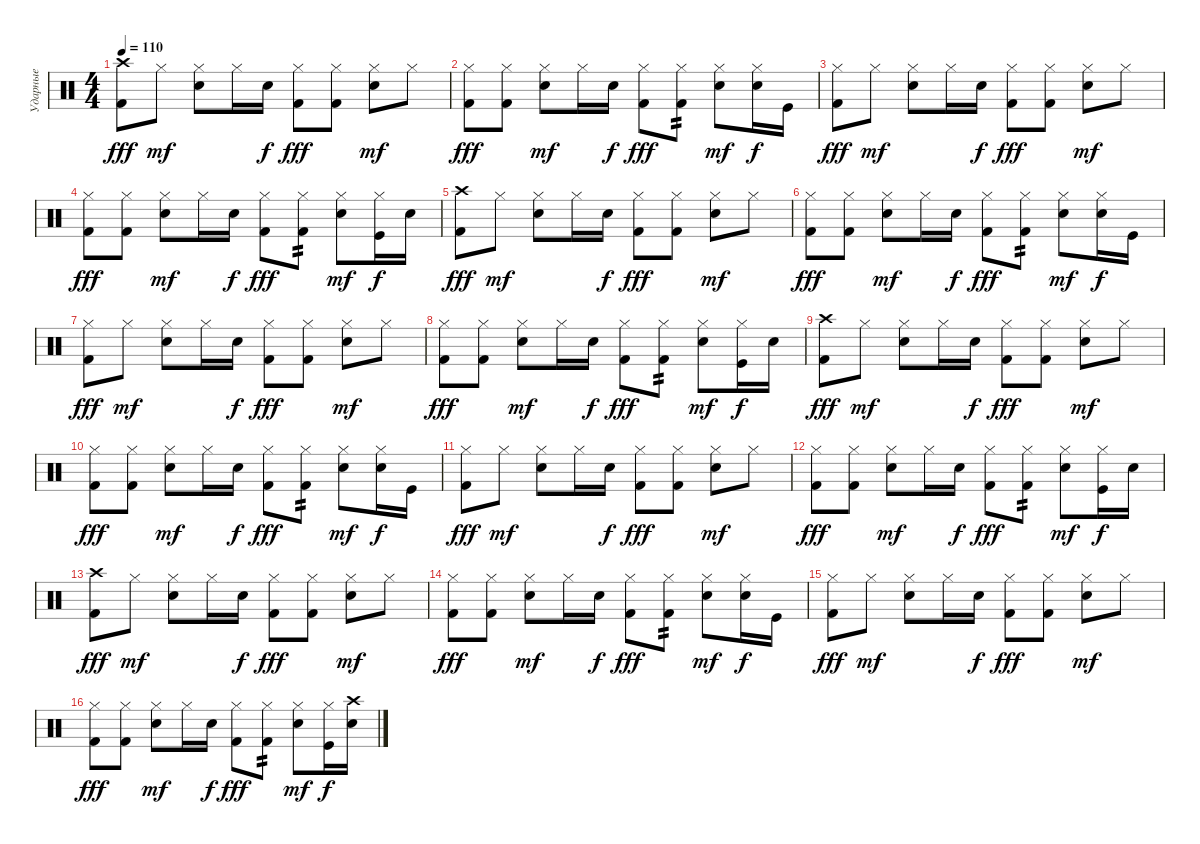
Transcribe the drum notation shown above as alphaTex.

\track ("Ударные" "Ударные") {instrument percussion}
\staff {score}
\articulation defaults
\ts (4 4)
\tempo 110
\clef neutral
\ks c
("Crash high (hit)" "Kick (hit) 2").8{dy fff} "Hi-Hat (closed)".8{dy mf} ("Hi-Hat (closed)" "Snare (hit) 2").8 "Hi-Hat (closed)".16 "Snare (hit) 2".16{dy f} ("Hi-Hat (closed)" "Kick (hit) 2").8{dy fff} ("Hi-Hat (closed)" "Kick (hit) 2").8 ("Hi-Hat (closed)" "Snare (hit) 2").8{dy mf} "Hi-Hat (closed)".8 |
("Hi-Hat (closed)" "Kick (hit) 2").8{dy fff} ("Hi-Hat (closed)" "Kick (hit) 2").8 ("Hi-Hat (closed)" "Snare (hit) 2").8{dy mf} "Hi-Hat (closed)".16 "Snare (hit) 2".16{dy f} ("Hi-Hat (closed)" "Kick (hit) 2").8{dy fff} ("Hi-Hat (closed)" "Kick (hit) 2").8{tp 2} ("Hi-Hat (closed)" "Snare (hit) 2").8{dy mf} ("Snare (hit) 2" "Hi-Hat (closed)").16{dy f} "Kick (hit)".16 |
("Hi-Hat (closed)" "Kick (hit) 2").8{dy fff} "Hi-Hat (closed)".8{dy mf} ("Hi-Hat (closed)" "Snare (hit) 2").8 "Hi-Hat (closed)".16 "Snare (hit) 2".16{dy f} ("Hi-Hat (closed)" "Kick (hit) 2").8{dy fff} ("Hi-Hat (closed)" "Kick (hit) 2").8 ("Hi-Hat (closed)" "Snare (hit) 2").8{dy mf} "Hi-Hat (closed)".8 |
("Hi-Hat (closed)" "Kick (hit) 2").8{dy fff} ("Hi-Hat (closed)" "Kick (hit) 2").8 ("Hi-Hat (closed)" "Snare (hit) 2").8{dy mf} "Hi-Hat (closed)".16 "Snare (hit) 2".16{dy f} ("Hi-Hat (closed)" "Kick (hit) 2").8{dy fff} ("Hi-Hat (closed)" "Kick (hit) 2").8{tp 2} ("Hi-Hat (closed)" "Snare (hit) 2").8{dy mf} ("Kick (hit)" "Hi-Hat (closed)").16{dy f} "Snare (hit) 2".16 |
("Crash high (hit)" "Kick (hit) 2").8{dy fff} "Hi-Hat (closed)".8{dy mf} ("Hi-Hat (closed)" "Snare (hit) 2").8 "Hi-Hat (closed)".16 "Snare (hit) 2".16{dy f} ("Hi-Hat (closed)" "Kick (hit) 2").8{dy fff} ("Hi-Hat (closed)" "Kick (hit) 2").8 ("Hi-Hat (closed)" "Snare (hit) 2").8{dy mf} "Hi-Hat (closed)".8 |
("Hi-Hat (closed)" "Kick (hit) 2").8{dy fff} ("Hi-Hat (closed)" "Kick (hit) 2").8 ("Hi-Hat (closed)" "Snare (hit) 2").8{dy mf} "Hi-Hat (closed)".16 "Snare (hit) 2".16{dy f} ("Hi-Hat (closed)" "Kick (hit) 2").8{dy fff} ("Hi-Hat (closed)" "Kick (hit) 2").8{tp 2} ("Hi-Hat (closed)" "Snare (hit) 2").8{dy mf} ("Snare (hit) 2" "Hi-Hat (closed)").16{dy f} "Kick (hit)".16 |
("Hi-Hat (closed)" "Kick (hit) 2").8{dy fff} "Hi-Hat (closed)".8{dy mf} ("Hi-Hat (closed)" "Snare (hit) 2").8 "Hi-Hat (closed)".16 "Snare (hit) 2".16{dy f} ("Hi-Hat (closed)" "Kick (hit) 2").8{dy fff} ("Hi-Hat (closed)" "Kick (hit) 2").8 ("Hi-Hat (closed)" "Snare (hit) 2").8{dy mf} "Hi-Hat (closed)".8 |
("Hi-Hat (closed)" "Kick (hit) 2").8{dy fff} ("Hi-Hat (closed)" "Kick (hit) 2").8 ("Hi-Hat (closed)" "Snare (hit) 2").8{dy mf} "Hi-Hat (closed)".16 "Snare (hit) 2".16{dy f} ("Hi-Hat (closed)" "Kick (hit) 2").8{dy fff} ("Hi-Hat (closed)" "Kick (hit) 2").8{tp 2} ("Hi-Hat (closed)" "Snare (hit) 2").8{dy mf} ("Kick (hit)" "Hi-Hat (closed)").16{dy f} "Snare (hit) 2".16 |
("Crash high (hit)" "Kick (hit) 2").8{dy fff} "Hi-Hat (closed)".8{dy mf} ("Hi-Hat (closed)" "Snare (hit) 2").8 "Hi-Hat (closed)".16 "Snare (hit) 2".16{dy f} ("Hi-Hat (closed)" "Kick (hit) 2").8{dy fff} ("Hi-Hat (closed)" "Kick (hit) 2").8 ("Hi-Hat (closed)" "Snare (hit) 2").8{dy mf} "Hi-Hat (closed)".8 |
("Hi-Hat (closed)" "Kick (hit) 2").8{dy fff} ("Hi-Hat (closed)" "Kick (hit) 2").8 ("Hi-Hat (closed)" "Snare (hit) 2").8{dy mf} "Hi-Hat (closed)".16 "Snare (hit) 2".16{dy f} ("Hi-Hat (closed)" "Kick (hit) 2").8{dy fff} ("Hi-Hat (closed)" "Kick (hit) 2").8{tp 2} ("Hi-Hat (closed)" "Snare (hit) 2").8{dy mf} ("Snare (hit) 2" "Hi-Hat (closed)").16{dy f} "Kick (hit)".16 |
("Hi-Hat (closed)" "Kick (hit) 2").8{dy fff} "Hi-Hat (closed)".8{dy mf} ("Hi-Hat (closed)" "Snare (hit) 2").8 "Hi-Hat (closed)".16 "Snare (hit) 2".16{dy f} ("Hi-Hat (closed)" "Kick (hit) 2").8{dy fff} ("Hi-Hat (closed)" "Kick (hit) 2").8 ("Hi-Hat (closed)" "Snare (hit) 2").8{dy mf} "Hi-Hat (closed)".8 |
("Hi-Hat (closed)" "Kick (hit) 2").8{dy fff} ("Hi-Hat (closed)" "Kick (hit) 2").8 ("Hi-Hat (closed)" "Snare (hit) 2").8{dy mf} "Hi-Hat (closed)".16 "Snare (hit) 2".16{dy f} ("Hi-Hat (closed)" "Kick (hit) 2").8{dy fff} ("Hi-Hat (closed)" "Kick (hit) 2").8{tp 2} ("Hi-Hat (closed)" "Snare (hit) 2").8{dy mf} ("Kick (hit)" "Hi-Hat (closed)").16{dy f} "Snare (hit) 2".16 |
("Crash high (hit)" "Kick (hit) 2").8{dy fff} "Hi-Hat (closed)".8{dy mf} ("Hi-Hat (closed)" "Snare (hit) 2").8 "Hi-Hat (closed)".16 "Snare (hit) 2".16{dy f} ("Hi-Hat (closed)" "Kick (hit) 2").8{dy fff} ("Hi-Hat (closed)" "Kick (hit) 2").8 ("Hi-Hat (closed)" "Snare (hit) 2").8{dy mf} "Hi-Hat (closed)".8 |
("Hi-Hat (closed)" "Kick (hit) 2").8{dy fff} ("Hi-Hat (closed)" "Kick (hit) 2").8 ("Hi-Hat (closed)" "Snare (hit) 2").8{dy mf} "Hi-Hat (closed)".16 "Snare (hit) 2".16{dy f} ("Hi-Hat (closed)" "Kick (hit) 2").8{dy fff} ("Hi-Hat (closed)" "Kick (hit) 2").8{tp 2} ("Hi-Hat (closed)" "Snare (hit) 2").8{dy mf} ("Snare (hit) 2" "Hi-Hat (closed)").16{dy f} "Kick (hit)".16 |
("Hi-Hat (closed)" "Kick (hit) 2").8{dy fff} "Hi-Hat (closed)".8{dy mf} ("Hi-Hat (closed)" "Snare (hit) 2").8 "Hi-Hat (closed)".16 "Snare (hit) 2".16{dy f} ("Hi-Hat (closed)" "Kick (hit) 2").8{dy fff} ("Hi-Hat (closed)" "Kick (hit) 2").8 ("Hi-Hat (closed)" "Snare (hit) 2").8{dy mf} "Hi-Hat (closed)".8 |
("Hi-Hat (closed)" "Kick (hit) 2").8{dy fff} ("Hi-Hat (closed)" "Kick (hit) 2").8 ("Hi-Hat (closed)" "Snare (hit) 2").8{dy mf} "Hi-Hat (closed)".16 "Snare (hit) 2".16{dy f} ("Hi-Hat (closed)" "Kick (hit) 2").8{dy fff} ("Hi-Hat (closed)" "Kick (hit) 2").8{tp 2} ("Hi-Hat (closed)" "Snare (hit) 2").8{dy mf} ("Kick (hit)" "Hi-Hat (closed)").16{dy f} ("Snare (hit) 2" "Crash high (hit)").16
